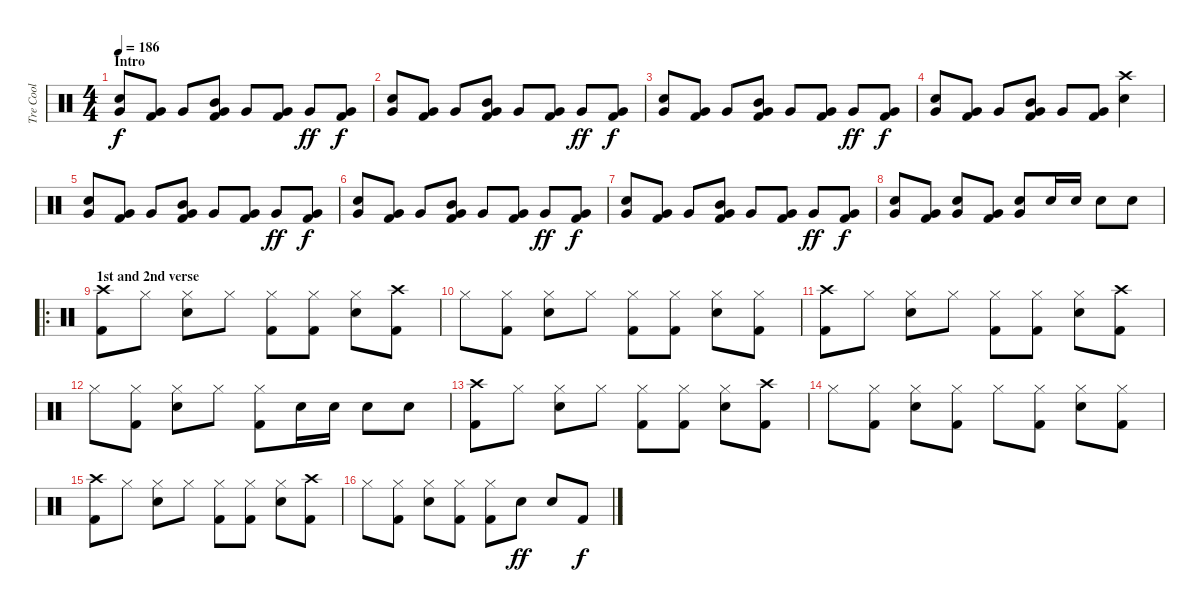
\track ("Tre Cool" "Tre Cool") {instrument percussion}
\staff {score}
\articulation defaults
\ts (4 4)
\section ("" "Intro")
\tempo 186
\clef neutral
\ks c
("Very Low Tom (hit)" "Electric Snare (hit)").8{dy f} ("Very Low Tom (hit)" "Kick (hit) 2").8 "Very Low Tom (hit)".8 ("Very Low Tom (hit)" "Mid Tom (hit)" "Kick (hit) 2").8 "Very Low Tom (hit)".8 ("Very Low Tom (hit)" "Kick (hit) 2").8 "Very Low Tom (hit)".8{dy ff} ("Very Low Tom (hit)" "Kick (hit) 2").8{dy f} |
("Very Low Tom (hit)" "Electric Snare (hit)").8 ("Very Low Tom (hit)" "Kick (hit) 2").8 "Very Low Tom (hit)".8 ("Very Low Tom (hit)" "Mid Tom (hit)" "Kick (hit) 2").8 "Very Low Tom (hit)".8 ("Very Low Tom (hit)" "Kick (hit) 2").8 "Very Low Tom (hit)".8{dy ff} ("Very Low Tom (hit)" "Kick (hit) 2").8{dy f} |
("Very Low Tom (hit)" "Electric Snare (hit)").8 ("Very Low Tom (hit)" "Kick (hit) 2").8 "Very Low Tom (hit)".8 ("Very Low Tom (hit)" "Mid Tom (hit)" "Kick (hit) 2").8 "Very Low Tom (hit)".8 ("Very Low Tom (hit)" "Kick (hit) 2").8 "Very Low Tom (hit)".8{dy ff} ("Very Low Tom (hit)" "Kick (hit) 2").8{dy f} |
("Very Low Tom (hit)" "Electric Snare (hit)").8 ("Very Low Tom (hit)" "Kick (hit) 2").8 "Very Low Tom (hit)".8 ("Very Low Tom (hit)" "Mid Tom (hit)" "Kick (hit) 2").8 "Very Low Tom (hit)".8 ("Very Low Tom (hit)" "Kick (hit) 2").8 ("Crash high (hit)" "Electric Snare (hit)").4 |
("Very Low Tom (hit)" "Electric Snare (hit)").8 ("Very Low Tom (hit)" "Kick (hit) 2").8 "Very Low Tom (hit)".8 ("Very Low Tom (hit)" "Mid Tom (hit)" "Kick (hit) 2").8 "Very Low Tom (hit)".8 ("Very Low Tom (hit)" "Kick (hit) 2").8 "Very Low Tom (hit)".8{dy ff} ("Very Low Tom (hit)" "Kick (hit) 2").8{dy f} |
("Very Low Tom (hit)" "Electric Snare (hit)").8 ("Very Low Tom (hit)" "Kick (hit) 2").8 "Very Low Tom (hit)".8 ("Very Low Tom (hit)" "Mid Tom (hit)" "Kick (hit) 2").8 "Very Low Tom (hit)".8 ("Very Low Tom (hit)" "Kick (hit) 2").8 "Very Low Tom (hit)".8{dy ff} ("Very Low Tom (hit)" "Kick (hit) 2").8{dy f} |
("Very Low Tom (hit)" "Electric Snare (hit)").8 ("Very Low Tom (hit)" "Kick (hit) 2").8 "Very Low Tom (hit)".8 ("Very Low Tom (hit)" "Mid Tom (hit)" "Kick (hit) 2").8 "Very Low Tom (hit)".8 ("Very Low Tom (hit)" "Kick (hit) 2").8 "Very Low Tom (hit)".8{dy ff} ("Very Low Tom (hit)" "Kick (hit) 2").8{dy f} |
("Very Low Tom (hit)" "Electric Snare (hit)").8 ("Very Low Tom (hit)" "Kick (hit) 2").8 ("Very Low Tom (hit)" "Electric Snare (hit)").8 ("Very Low Tom (hit)" "Kick (hit) 2").8 ("Very Low Tom (hit)" "Electric Snare (hit)").8 "Electric Snare (hit)".16 "Electric Snare (hit)".16 "Electric Snare (hit)".8 "Electric Snare (hit)".8 |
\ro
\section ("" "1st and 2nd verse")
("Crash high (hit)" "Kick (hit) 2").8 "Hi-Hat (closed)".8 ("Hi-Hat (closed)" "Electric Snare (hit)").8 "Hi-Hat (closed)".8 ("Hi-Hat (closed)" "Kick (hit) 2").8 ("Hi-Hat (closed)" "Kick (hit) 2").8 ("Hi-Hat (closed)" "Electric Snare (hit)").8 ("Crash high (hit)" "Kick (hit) 2").8 |
"Hi-Hat (closed)".8 ("Hi-Hat (closed)" "Kick (hit) 2").8 ("Hi-Hat (closed)" "Electric Snare (hit)").8 "Hi-Hat (closed)".8 ("Hi-Hat (closed)" "Kick (hit) 2").8 ("Hi-Hat (closed)" "Kick (hit) 2").8 ("Hi-Hat (closed)" "Electric Snare (hit)").8 ("Hi-Hat (closed)" "Kick (hit) 2").8 |
("Crash high (hit)" "Kick (hit) 2").8 "Hi-Hat (closed)".8 ("Hi-Hat (closed)" "Electric Snare (hit)").8 "Hi-Hat (closed)".8 ("Hi-Hat (closed)" "Kick (hit) 2").8 ("Hi-Hat (closed)" "Kick (hit) 2").8 ("Hi-Hat (closed)" "Electric Snare (hit)").8 ("Crash high (hit)" "Kick (hit) 2").8 |
"Hi-Hat (closed)".8 ("Hi-Hat (closed)" "Kick (hit) 2").8 ("Hi-Hat (closed)" "Electric Snare (hit)").8 "Hi-Hat (closed)".8 ("Hi-Hat (closed)" "Kick (hit) 2").8 "Electric Snare (hit)".16 "Electric Snare (hit)".16 "Electric Snare (hit)".8 "Electric Snare (hit)".8 |
("Crash high (hit)" "Kick (hit) 2").8 "Hi-Hat (closed)".8 ("Hi-Hat (closed)" "Electric Snare (hit)").8 "Hi-Hat (closed)".8 ("Hi-Hat (closed)" "Kick (hit) 2").8 ("Hi-Hat (closed)" "Kick (hit) 2").8 ("Hi-Hat (closed)" "Electric Snare (hit)").8 ("Crash high (hit)" "Kick (hit) 2").8 |
"Hi-Hat (closed)".8 ("Hi-Hat (closed)" "Kick (hit) 2").8 ("Hi-Hat (closed)" "Electric Snare (hit)").8 ("Hi-Hat (closed)" "Kick (hit) 2").8 "Hi-Hat (closed)".8 ("Hi-Hat (closed)" "Kick (hit) 2").8 ("Hi-Hat (closed)" "Electric Snare (hit)").8 ("Hi-Hat (closed)" "Kick (hit) 2").8 |
("Crash high (hit)" "Kick (hit) 2").8 "Hi-Hat (closed)".8 ("Hi-Hat (closed)" "Electric Snare (hit)").8 "Hi-Hat (closed)".8 ("Hi-Hat (closed)" "Kick (hit) 2").8 ("Hi-Hat (closed)" "Kick (hit) 2").8 ("Hi-Hat (closed)" "Electric Snare (hit)").8 ("Crash high (hit)" "Kick (hit) 2").8 |
"Hi-Hat (closed)".8 ("Hi-Hat (closed)" "Kick (hit) 2").8 ("Hi-Hat (closed)" "Electric Snare (hit)").8 ("Hi-Hat (closed)" "Kick (hit) 2").8 ("Hi-Hat (closed)" "Kick (hit) 2").8 "Electric Snare (hit)".8{dy ff} "Electric Snare (hit)".8 "Kick (hit) 2".8{dy f}
